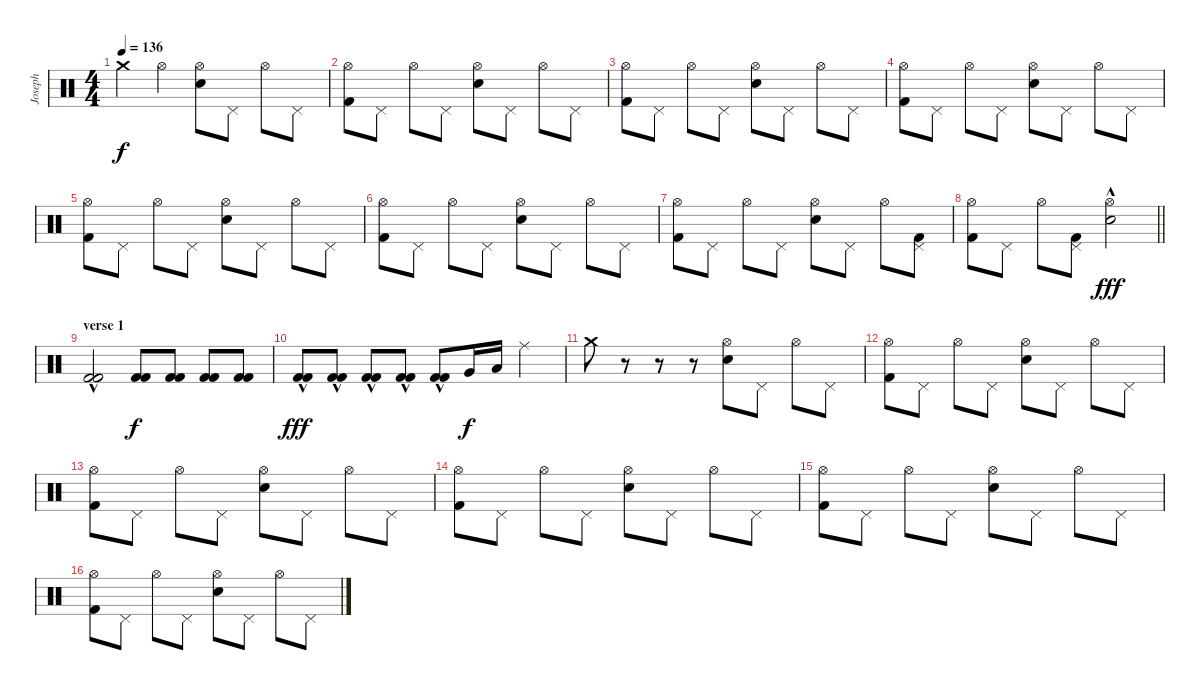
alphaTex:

\track ("Joseph" "Joseph") {instrument percussion}
\staff {score}
\articulation defaults
\ts (4 4)
\tempo 136
\clef neutral
\ks c "Crash medium (hit)".4{dy f} "Hi-Hat (open)".4
("Electric Snare (hit)" "Hi-Hat (open)").8 "Pedal Hi-Hat (hit)".8 "Hi-Hat (open)".8 "Pedal Hi-Hat (hit)".8 |
("Kick (hit) 2" "Hi-Hat (open)").8 "Pedal Hi-Hat (hit)".8 "Hi-Hat (open)".8 "Pedal Hi-Hat (hit)".8 ("Electric Snare (hit)" "Hi-Hat (open)").8 "Pedal Hi-Hat (hit)".8 "Hi-Hat (open)".8 "Pedal Hi-Hat (hit)".8 |
("Kick (hit) 2" "Hi-Hat (open)").8 "Pedal Hi-Hat (hit)".8 "Hi-Hat (open)".8 "Pedal Hi-Hat (hit)".8 ("Electric Snare (hit)" "Hi-Hat (open)").8 "Pedal Hi-Hat (hit)".8 "Hi-Hat (open)".8 "Pedal Hi-Hat (hit)".8 |
("Kick (hit) 2" "Hi-Hat (open)").8 "Pedal Hi-Hat (hit)".8 "Hi-Hat (open)".8 "Pedal Hi-Hat (hit)".8 ("Electric Snare (hit)" "Hi-Hat (open)").8 "Pedal Hi-Hat (hit)".8 "Hi-Hat (open)".8 "Pedal Hi-Hat (hit)".8 |
("Kick (hit) 2" "Hi-Hat (open)").8 "Pedal Hi-Hat (hit)".8 "Hi-Hat (open)".8 "Pedal Hi-Hat (hit)".8 ("Electric Snare (hit)" "Hi-Hat (open)").8 "Pedal Hi-Hat (hit)".8 "Hi-Hat (open)".8 "Pedal Hi-Hat (hit)".8 |
("Kick (hit) 2" "Hi-Hat (open)").8 "Pedal Hi-Hat (hit)".8 "Hi-Hat (open)".8 "Pedal Hi-Hat (hit)".8 ("Electric Snare (hit)" "Hi-Hat (open)").8 "Pedal Hi-Hat (hit)".8 "Hi-Hat (open)".8 "Pedal Hi-Hat (hit)".8 |
("Kick (hit) 2" "Hi-Hat (open)").8 "Pedal Hi-Hat (hit)".8 "Hi-Hat (open)".8 "Pedal Hi-Hat (hit)".8 ("Electric Snare (hit)" "Hi-Hat (open)").8 "Pedal Hi-Hat (hit)".8 "Hi-Hat (open)".8 ("Kick (hit) 2" "Pedal Hi-Hat (hit)").8 |
\barLineRight lightlight
("Kick (hit) 2" "Hi-Hat (open)").8 "Pedal Hi-Hat (hit)".8 "Hi-Hat (open)".8 ("Kick (hit) 2" "Pedal Hi-Hat (hit)").8 ("Electric Snare (hit)" "Hi-Hat (open)"{hac}).2{dy fff} |
\section ("" "verse 1")
("Kick (hit) 2"{hac} "Kick (hit) 2"{hac}).2{volume 0} ("Kick (hit) 2" "Kick (hit) 2").8{dy f volume 11} ("Kick (hit) 2" "Kick (hit) 2").8 ("Kick (hit) 2" "Kick (hit) 2").8 ("Kick (hit) 2" "Kick (hit) 2").8 |
("Kick (hit) 2" "Kick (hit) 2"{hac}).8{dy fff} ("Kick (hit) 2"{hac} "Kick (hit) 2"{hac}).8 ("Kick (hit) 2"{hac} "Kick (hit) 2"{hac}).8 ("Kick (hit) 2"{hac} "Kick (hit) 2"{hac}).8 ("Kick (hit) 2"{hac} "Kick (hit) 2"{hac}).8 "Very Low Tom (hit)".16{dy f} "Low Tom (hit)".16 "Ride (middle)".4 |
"Crash medium (hit)".8 r.8 r.8 r.8 ("Electric Snare (hit)" "Hi-Hat (open)").8 "Pedal Hi-Hat (hit)".8 "Hi-Hat (open)".8 "Pedal Hi-Hat (hit)".8 |
("Kick (hit) 2" "Hi-Hat (open)").8 "Pedal Hi-Hat (hit)".8 "Hi-Hat (open)".8 "Pedal Hi-Hat (hit)".8 ("Electric Snare (hit)" "Hi-Hat (open)").8 "Pedal Hi-Hat (hit)".8 "Hi-Hat (open)".8 "Pedal Hi-Hat (hit)".8 |
("Kick (hit) 2" "Hi-Hat (open)").8 "Pedal Hi-Hat (hit)".8 "Hi-Hat (open)".8 "Pedal Hi-Hat (hit)".8 ("Electric Snare (hit)" "Hi-Hat (open)").8 "Pedal Hi-Hat (hit)".8 "Hi-Hat (open)".8 "Pedal Hi-Hat (hit)".8 |
("Kick (hit) 2" "Hi-Hat (open)").8 "Pedal Hi-Hat (hit)".8 "Hi-Hat (open)".8 "Pedal Hi-Hat (hit)".8 ("Electric Snare (hit)" "Hi-Hat (open)").8 "Pedal Hi-Hat (hit)".8 "Hi-Hat (open)".8 "Pedal Hi-Hat (hit)".8 |
("Kick (hit) 2" "Hi-Hat (open)").8 "Pedal Hi-Hat (hit)".8 "Hi-Hat (open)".8 "Pedal Hi-Hat (hit)".8 ("Electric Snare (hit)" "Hi-Hat (open)").8 "Pedal Hi-Hat (hit)".8 "Hi-Hat (open)".8 "Pedal Hi-Hat (hit)".8 |
("Kick (hit) 2" "Hi-Hat (open)").8 "Pedal Hi-Hat (hit)".8 "Hi-Hat (open)".8 "Pedal Hi-Hat (hit)".8 ("Electric Snare (hit)" "Hi-Hat (open)").8 "Pedal Hi-Hat (hit)".8 "Hi-Hat (open)".8 "Pedal Hi-Hat (hit)".8
